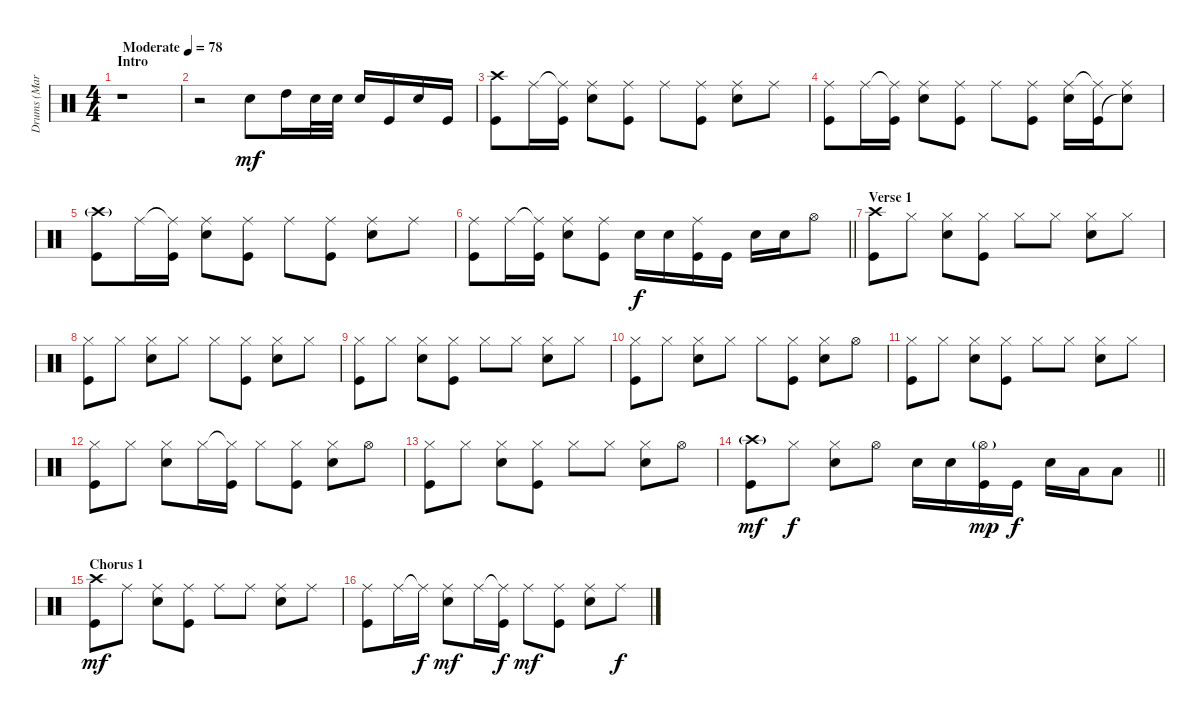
\track ("Drums (Marcel Roemer)" "Drums (Mar") {instrument percussion}
\staff {score}
\articulation defaults
\ts (4 4)
\section ("" "Intro")
\tempo (78 "Moderate")
\clef neutral
\ks c
r.1{dy mf} |
r.2 "Snare (hit) 2".8 "High Tom (hit)".16 "Snare (hit) 2".32 "Snare (hit) 2".32 "Snare (hit) 2".16 "Kick (hit)".16 "Snare (hit) 2".16 "Kick (hit)".16 |
("Crash high (hit)" "Kick (hit)").8 "Ride (middle)".16 ("Ride (middle)"{t} "Kick (hit)").16 ("Ride (middle)" "Snare (hit) 2").8 ("Ride (middle)" "Kick (hit)").8 "Ride (middle)".8 ("Ride (middle)" "Kick (hit)").8 ("Ride (middle)" "Snare (hit) 2").8 "Ride (middle)".8 |
("Ride (middle)" "Kick (hit)").8 "Ride (middle)".16 ("Ride (middle)"{t} "Kick (hit)").16 ("Ride (middle)" "Snare (hit) 2").8 ("Ride (middle)" "Kick (hit)").8 "Ride (middle)".8 ("Ride (middle)" "Kick (hit)").8 ("Ride (middle)" "Snare (hit) 2").16 ("Ride (middle)"{t} "Kick (hit)").16 ("Ride (middle)" "Snare (hit)"{t}).8 |
("Crash high (hit)"{g} "Kick (hit)").8 "Ride (middle)".16 ("Ride (middle)"{t} "Kick (hit)").16 ("Ride (middle)" "Snare (hit) 2").8 ("Ride (middle)" "Kick (hit)").8 "Ride (middle)".8 ("Ride (middle)" "Kick (hit)").8 ("Ride (middle)" "Snare (hit) 2").8 "Ride (middle)".8 |
\barLineRight lightlight
("Ride (middle)" "Kick (hit)").8 "Ride (middle)".16 ("Ride (middle)"{t} "Kick (hit)").16 ("Ride (middle)" "Snare (hit) 2").8 ("Ride (middle)" "Kick (hit)").8 "Snare (hit) 2".16{dy f} "Snare (hit) 2".16 ("Ride (middle)" "Kick (hit)").16 "Kick (hit)".16 "Snare (hit) 2".16 "Snare (hit) 2".16 "Hi-Hat (open)".8 |
\section ("" "Verse 1")
("Crash high (hit)" "Kick (hit)").8 "Hi-Hat (closed)".8 ("Hi-Hat (closed)" "Snare (hit) 2").8 ("Hi-Hat (closed)" "Kick (hit)").8 "Hi-Hat (closed)".8 "Hi-Hat (closed)".8 ("Hi-Hat (closed)" "Snare (hit) 2").8 "Hi-Hat (closed)".8 |
("Hi-Hat (closed)" "Kick (hit)").8 "Hi-Hat (closed)".8 ("Hi-Hat (closed)" "Snare (hit) 2").8 "Hi-Hat (closed)".8 "Hi-Hat (closed)".8 ("Hi-Hat (closed)" "Kick (hit)").8 ("Hi-Hat (closed)" "Snare (hit) 2").8 "Hi-Hat (closed)".8 |
("Hi-Hat (closed)" "Kick (hit)").8 "Hi-Hat (closed)".8 ("Hi-Hat (closed)" "Snare (hit) 2").8 ("Hi-Hat (closed)" "Kick (hit)").8 "Hi-Hat (closed)".8 "Hi-Hat (closed)".8 ("Hi-Hat (closed)" "Snare (hit) 2").8 "Hi-Hat (closed)".8 |
("Hi-Hat (closed)" "Kick (hit)").8 "Hi-Hat (closed)".8 ("Hi-Hat (closed)" "Snare (hit) 2").8 "Hi-Hat (closed)".8 "Hi-Hat (closed)".8 ("Hi-Hat (closed)" "Kick (hit)").8 ("Hi-Hat (closed)" "Snare (hit) 2").8 "Hi-Hat (open)".8 |
("Hi-Hat (closed)" "Kick (hit)").8 "Hi-Hat (closed)".8 ("Hi-Hat (closed)" "Snare (hit) 2").8 ("Hi-Hat (closed)" "Kick (hit)").8 "Hi-Hat (closed)".8 "Hi-Hat (closed)".8 ("Hi-Hat (closed)" "Snare (hit) 2").8 "Hi-Hat (closed)".8 |
("Hi-Hat (closed)" "Kick (hit)").8 "Hi-Hat (closed)".8 ("Hi-Hat (closed)" "Snare (hit) 2").8 "Hi-Hat (closed)".16 ("Hi-Hat (closed)"{t} "Kick (hit)").16 "Hi-Hat (closed)".8 ("Hi-Hat (closed)" "Kick (hit)").8 ("Hi-Hat (closed)" "Snare (hit) 2").8 "Hi-Hat (open)".8 |
("Hi-Hat (closed)" "Kick (hit)").8 "Hi-Hat (closed)".8 ("Hi-Hat (closed)" "Snare (hit) 2").8 ("Hi-Hat (closed)" "Kick (hit)").8 "Hi-Hat (closed)".8 "Hi-Hat (closed)".8 ("Hi-Hat (closed)" "Snare (hit) 2").8 "Hi-Hat (open)".8 |
\barLineRight lightlight
("Crash high (hit)"{g} "Kick (hit)").8{dy mf} "Hi-Hat (closed)".8{dy f} ("Hi-Hat (closed)" "Snare (hit) 2").8 "Hi-Hat (open)".8 "Snare (hit) 2".16 "Snare (hit) 2".16 ("Hi-Hat (open)"{g} "Kick (hit)").16{dy mp} "Kick (hit)".16{dy f} "Snare (hit) 2".16 "Low Tom (hit)".16 "Low Floor Tom (hit)".8 |
\section ("" "Chorus 1")
("Crash high (hit)" "Kick (hit)").8{dy mf} "Ride (middle)".8 ("Ride (middle)" "Snare (hit) 2").8 ("Ride (middle)" "Kick (hit)").8 "Ride (middle)".8 "Ride (middle)".8 ("Ride (middle)" "Snare (hit) 2").8 "Ride (middle)".8 |
("Ride (middle)" "Kick (hit)").8 "Ride (middle)".16 "Ride (middle)"{t}.16{dy f} ("Ride (middle)" "Snare (hit) 2").8{dy mf} "Ride (middle)".16 ("Ride (middle)"{t} "Kick (hit)").16{dy f} "Ride (middle)".8{dy mf} ("Ride (middle)" "Kick (hit)").8 ("Ride (middle)" "Snare (hit) 2").8 "Ride (middle)".8{dy f}
